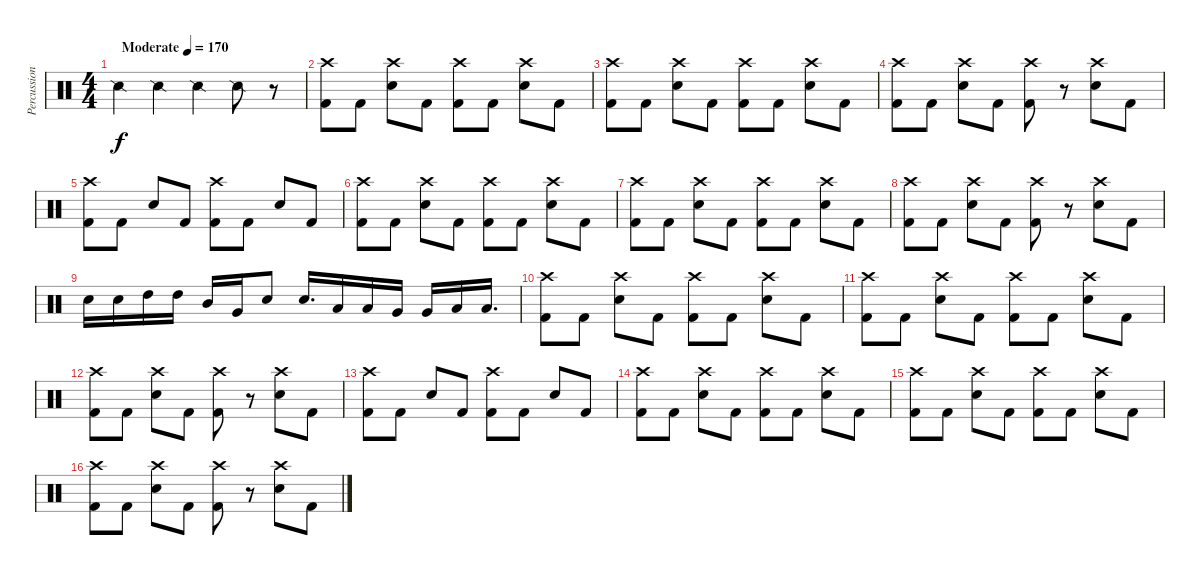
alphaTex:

\track ("Percussions" "Percussion") {instrument percussion}
\staff {score}
\articulation defaults
\ts (4 4)
\tempo (170 "Moderate")
\clef neutral
\ks c "Snare (side stick) 2".4{dy f} "Snare (side stick) 2".4 "Snare (side stick) 2".4 "Snare (side stick) 2".8
r.8 |
("Crash high (hit)" "Kick (hit) 2").8 "Kick (hit) 2".8 ("Crash high (hit)" "Electric Snare (hit)").8 "Kick (hit) 2".8 ("Crash high (hit)" "Kick (hit) 2").8 "Kick (hit) 2".8 ("Crash high (hit)" "Electric Snare (hit)").8 "Kick (hit) 2".8 |
("Crash high (hit)" "Kick (hit) 2").8 "Kick (hit) 2".8 ("Crash high (hit)" "Electric Snare (hit)").8 "Kick (hit) 2".8 ("Crash high (hit)" "Kick (hit) 2").8 "Kick (hit) 2".8 ("Crash high (hit)" "Electric Snare (hit)").8 "Kick (hit) 2".8 |
("Crash high (hit)" "Kick (hit) 2").8 "Kick (hit) 2".8 ("Crash high (hit)" "Electric Snare (hit)").8 "Kick (hit) 2".8 ("Crash high (hit)" "Kick (hit) 2").8 r.8 ("Crash high (hit)" "Electric Snare (hit)").8 "Kick (hit) 2".8 |
("Crash high (hit)" "Kick (hit) 2").8 "Kick (hit) 2".8 "Electric Snare (hit)".8 "Kick (hit) 2".8 ("Crash high (hit)" "Kick (hit) 2").8 "Kick (hit) 2".8 "Electric Snare (hit)".8 "Kick (hit) 2".8 |
("Crash high (hit)" "Kick (hit) 2").8 "Kick (hit) 2".8 ("Crash high (hit)" "Electric Snare (hit)").8 "Kick (hit) 2".8 ("Crash high (hit)" "Kick (hit) 2").8 "Kick (hit) 2".8 ("Crash high (hit)" "Electric Snare (hit)").8 "Kick (hit) 2".8 |
("Crash high (hit)" "Kick (hit) 2").8 "Kick (hit) 2".8 ("Crash high (hit)" "Electric Snare (hit)").8 "Kick (hit) 2".8 ("Crash high (hit)" "Kick (hit) 2").8 "Kick (hit) 2".8 ("Crash high (hit)" "Electric Snare (hit)").8 "Kick (hit) 2".8 |
("Crash high (hit)" "Kick (hit) 2").8 "Kick (hit) 2".8 ("Crash high (hit)" "Electric Snare (hit)").8 "Kick (hit) 2".8 ("Crash high (hit)" "Kick (hit) 2").8 r.8 ("Crash high (hit)" "Electric Snare (hit)").8 "Kick (hit) 2".8 |
"Electric Snare (hit)".16 "Electric Snare (hit)".16 "High Tom (hit)".16 "High Tom (hit)".16 "Mid Tom (hit)".16 "Very Low Tom (hit)".16 "Electric Snare (hit)".8 "Electric Snare (hit)".16{d} "Low Tom (hit)".16 "Low Tom (hit)".16 "Very Low Tom (hit)".16 "Very Low Tom (hit)".16 "Low Floor Tom (hit)".16 "Low Floor Tom (hit)".16{d} |
("Crash high (hit)" "Kick (hit) 2").8 "Kick (hit) 2".8 ("Crash high (hit)" "Electric Snare (hit)").8 "Kick (hit) 2".8 ("Crash high (hit)" "Kick (hit) 2").8 "Kick (hit) 2".8 ("Crash high (hit)" "Electric Snare (hit)").8 "Kick (hit) 2".8 |
("Crash high (hit)" "Kick (hit) 2").8 "Kick (hit) 2".8 ("Crash high (hit)" "Electric Snare (hit)").8 "Kick (hit) 2".8 ("Crash high (hit)" "Kick (hit) 2").8 "Kick (hit) 2".8 ("Crash high (hit)" "Electric Snare (hit)").8 "Kick (hit) 2".8 |
("Crash high (hit)" "Kick (hit) 2").8 "Kick (hit) 2".8 ("Crash high (hit)" "Electric Snare (hit)").8 "Kick (hit) 2".8 ("Crash high (hit)" "Kick (hit) 2").8 r.8 ("Crash high (hit)" "Electric Snare (hit)").8 "Kick (hit) 2".8 |
("Crash high (hit)" "Kick (hit) 2").8 "Kick (hit) 2".8 "Electric Snare (hit)".8 "Kick (hit) 2".8 ("Crash high (hit)" "Kick (hit) 2").8 "Kick (hit) 2".8 "Electric Snare (hit)".8 "Kick (hit) 2".8 |
("Crash high (hit)" "Kick (hit) 2").8 "Kick (hit) 2".8 ("Crash high (hit)" "Electric Snare (hit)").8 "Kick (hit) 2".8 ("Crash high (hit)" "Kick (hit) 2").8 "Kick (hit) 2".8 ("Crash high (hit)" "Electric Snare (hit)").8 "Kick (hit) 2".8 |
("Crash high (hit)" "Kick (hit) 2").8 "Kick (hit) 2".8 ("Crash high (hit)" "Electric Snare (hit)").8 "Kick (hit) 2".8 ("Crash high (hit)" "Kick (hit) 2").8 "Kick (hit) 2".8 ("Crash high (hit)" "Electric Snare (hit)").8 "Kick (hit) 2".8 |
("Crash high (hit)" "Kick (hit) 2").8 "Kick (hit) 2".8 ("Crash high (hit)" "Electric Snare (hit)").8 "Kick (hit) 2".8 ("Crash high (hit)" "Kick (hit) 2").8 r.8 ("Crash high (hit)" "Electric Snare (hit)").8 "Kick (hit) 2".8
